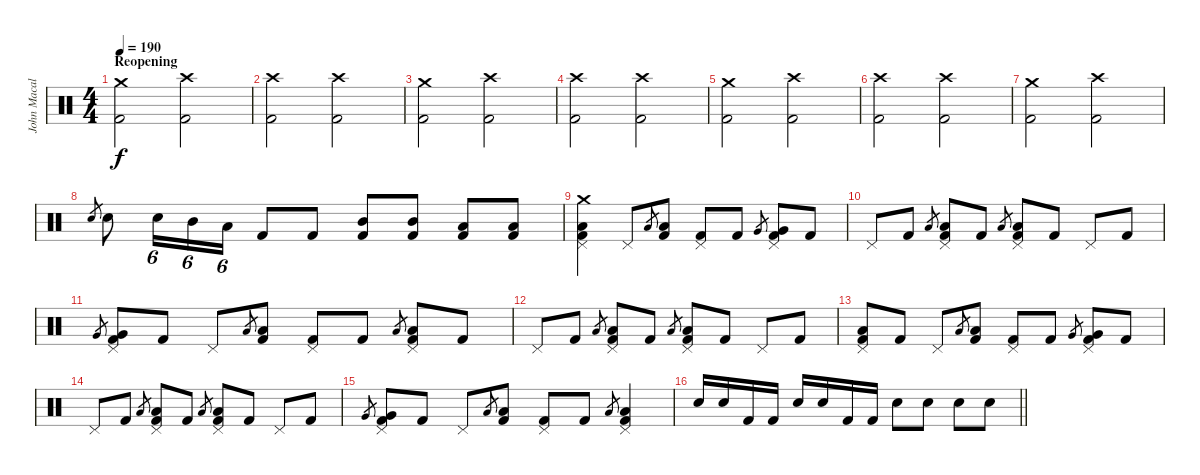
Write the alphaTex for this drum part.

\track ("John Macaluso" "John Macal") {instrument percussion}
\staff {score}
\articulation defaults
\ts (4 4)
\section ("" "Reopening")
\tempo 190
\clef neutral
\ks c
("Crash medium (hit)" "Kick (hit) 2").2{dy f} ("Crash high (hit)" "Kick (hit) 2").2 |
("Crash high (hit)" "Kick (hit) 2").2 ("Crash high (hit)" "Kick (hit) 2").2 |
("Crash medium (hit)" "Kick (hit) 2").2 ("Crash high (hit)" "Kick (hit) 2").2 |
("Crash high (hit)" "Kick (hit) 2").2 ("Crash high (hit)" "Kick (hit) 2").2 |
("Crash medium (hit)" "Kick (hit) 2").2 ("Crash high (hit)" "Kick (hit) 2").2 |
("Crash high (hit)" "Kick (hit) 2").2 ("Crash high (hit)" "Kick (hit) 2").2 |
("Crash medium (hit)" "Kick (hit) 2").2 ("Crash high (hit)" "Kick (hit) 2").2 |
"Snare (hit) 2".8{gr} "Snare (hit) 2".8 "Snare (hit) 2".16{tu (6 4)} "Mid Tom (hit)".16{tu (6 4)} "Low Tom (hit)".16{tu (6 4)} "Kick (hit) 2".8 "Kick (hit) 2".8 ("Mid Tom (hit)" "Kick (hit) 2").8 ("Mid Tom (hit)" "Kick (hit) 2").8 ("Low Tom (hit)" "Kick (hit) 2").8 ("Low Tom (hit)" "Kick (hit) 2").8 |
("Crash medium (hit)" "Pedal Hi-Hat (hit)" "Low Tom (hit)" "Kick (hit) 2").4 "Pedal Hi-Hat (hit)".8 "Low Tom (hit)".8{gr} ("Low Tom (hit)" "Kick (hit) 2").8 ("Pedal Hi-Hat (hit)" "Kick (hit) 2").8 "Kick (hit) 2".8 "Very Low Tom (hit)".8{gr} ("Pedal Hi-Hat (hit)" "Very Low Tom (hit)" "Kick (hit) 2").8 "Kick (hit) 2".8 |
"Pedal Hi-Hat (hit)".8 "Kick (hit) 2".8 "Low Tom (hit)".8{gr} ("Pedal Hi-Hat (hit)" "Low Tom (hit)" "Kick (hit) 2").8 "Kick (hit) 2".8 "Low Tom (hit)".8{gr} ("Pedal Hi-Hat (hit)" "Low Tom (hit)" "Kick (hit) 2").8 "Kick (hit) 2".8 "Pedal Hi-Hat (hit)".8 "Kick (hit) 2".8 |
"Very Low Tom (hit)".8{gr} ("Pedal Hi-Hat (hit)" "Very Low Tom (hit)" "Kick (hit) 2").8 "Kick (hit) 2".8 "Pedal Hi-Hat (hit)".8 "Low Tom (hit)".8{gr} ("Low Tom (hit)" "Kick (hit) 2").8 ("Pedal Hi-Hat (hit)" "Kick (hit) 2").8 "Kick (hit) 2".8 "Low Tom (hit)".8{gr} ("Pedal Hi-Hat (hit)" "Low Tom (hit)" "Kick (hit) 2").8 "Kick (hit) 2".8 |
"Pedal Hi-Hat (hit)".8 "Kick (hit) 2".8 "Low Tom (hit)".8{gr} ("Pedal Hi-Hat (hit)" "Low Tom (hit)" "Kick (hit) 2").8 "Kick (hit) 2".8 "Low Tom (hit)".8{gr} ("Pedal Hi-Hat (hit)" "Low Tom (hit)" "Kick (hit) 2").8 "Kick (hit) 2".8 "Pedal Hi-Hat (hit)".8 "Kick (hit) 2".8 |
("Pedal Hi-Hat (hit)" "Low Tom (hit)" "Kick (hit) 2").8 "Kick (hit) 2".8 "Pedal Hi-Hat (hit)".8 "Low Tom (hit)".8{gr} ("Low Tom (hit)" "Kick (hit) 2").8 ("Pedal Hi-Hat (hit)" "Kick (hit) 2").8 "Kick (hit) 2".8 "Very Low Tom (hit)".8{gr} ("Pedal Hi-Hat (hit)" "Very Low Tom (hit)" "Kick (hit) 2").8 "Kick (hit) 2".8 |
"Pedal Hi-Hat (hit)".8 "Kick (hit) 2".8 "Low Tom (hit)".8{gr} ("Pedal Hi-Hat (hit)" "Low Tom (hit)" "Kick (hit) 2").8 "Kick (hit) 2".8 "Low Tom (hit)".8{gr} ("Pedal Hi-Hat (hit)" "Low Tom (hit)" "Kick (hit) 2").8 "Kick (hit) 2".8 "Pedal Hi-Hat (hit)".8 "Kick (hit) 2".8 |
"Very Low Tom (hit)".8{gr} ("Pedal Hi-Hat (hit)" "Very Low Tom (hit)" "Kick (hit) 2").8 "Kick (hit) 2".8 "Pedal Hi-Hat (hit)".8 "Low Tom (hit)".8{gr} ("Low Tom (hit)" "Kick (hit) 2").8 ("Pedal Hi-Hat (hit)" "Kick (hit) 2").8 "Kick (hit) 2".8 "Low Tom (hit)".8{gr} ("Pedal Hi-Hat (hit)" "Low Tom (hit)" "Kick (hit) 2").4 |
\barLineRight lightlight "Snare (hit) 2".16 "Snare (hit) 2".16 "Kick (hit) 2".16 "Kick (hit) 2".16 "Snare (hit) 2".16 "Snare (hit) 2".16 "Kick (hit) 2".16 "Kick (hit) 2".16 "Snare (hit) 2".8 "Snare (hit) 2".8 "Snare (hit) 2".8 "Snare (hit) 2".8
